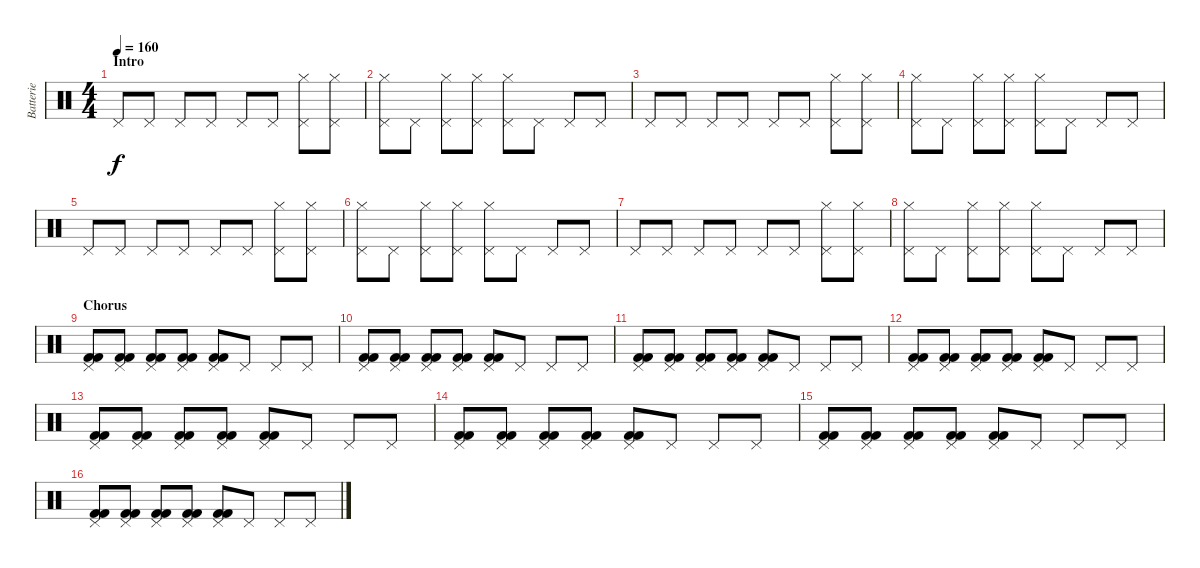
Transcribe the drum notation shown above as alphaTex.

\track ("Batterie" "Batterie") {instrument percussion}
\staff {score}
\articulation defaults
\ts (4 4)
\section ("" "Intro")
\tempo 160
\clef neutral
\ks c "Pedal Hi-Hat (hit)".8{dy f} "Pedal Hi-Hat (hit)".8 "Pedal Hi-Hat (hit)".8 "Pedal Hi-Hat (hit)".8 "Pedal Hi-Hat (hit)".8 "Pedal Hi-Hat (hit)".8
("Hi-Hat (closed)" "Pedal Hi-Hat (hit)").8 ("Hi-Hat (closed)" "Pedal Hi-Hat (hit)").8 |
("Hi-Hat (closed)" "Pedal Hi-Hat (hit)").8 "Pedal Hi-Hat (hit)".8 ("Hi-Hat (closed)" "Pedal Hi-Hat (hit)").8 ("Hi-Hat (closed)" "Pedal Hi-Hat (hit)").8 ("Hi-Hat (closed)" "Pedal Hi-Hat (hit)").8 "Pedal Hi-Hat (hit)".8 "Pedal Hi-Hat (hit)".8 "Pedal Hi-Hat (hit)".8 |
"Pedal Hi-Hat (hit)".8 "Pedal Hi-Hat (hit)".8 "Pedal Hi-Hat (hit)".8 "Pedal Hi-Hat (hit)".8 "Pedal Hi-Hat (hit)".8 "Pedal Hi-Hat (hit)".8 ("Hi-Hat (closed)" "Pedal Hi-Hat (hit)").8 ("Hi-Hat (closed)" "Pedal Hi-Hat (hit)").8 |
("Hi-Hat (closed)" "Pedal Hi-Hat (hit)").8 "Pedal Hi-Hat (hit)".8 ("Hi-Hat (closed)" "Pedal Hi-Hat (hit)").8 ("Hi-Hat (closed)" "Pedal Hi-Hat (hit)").8 ("Hi-Hat (closed)" "Pedal Hi-Hat (hit)").8 "Pedal Hi-Hat (hit)".8 "Pedal Hi-Hat (hit)".8 "Pedal Hi-Hat (hit)".8 |
"Pedal Hi-Hat (hit)".8 "Pedal Hi-Hat (hit)".8 "Pedal Hi-Hat (hit)".8 "Pedal Hi-Hat (hit)".8 "Pedal Hi-Hat (hit)".8 "Pedal Hi-Hat (hit)".8 ("Hi-Hat (closed)" "Pedal Hi-Hat (hit)").8 ("Hi-Hat (closed)" "Pedal Hi-Hat (hit)").8 |
("Hi-Hat (closed)" "Pedal Hi-Hat (hit)").8 "Pedal Hi-Hat (hit)".8 ("Hi-Hat (closed)" "Pedal Hi-Hat (hit)").8 ("Hi-Hat (closed)" "Pedal Hi-Hat (hit)").8 ("Hi-Hat (closed)" "Pedal Hi-Hat (hit)").8 "Pedal Hi-Hat (hit)".8 "Pedal Hi-Hat (hit)".8 "Pedal Hi-Hat (hit)".8 |
"Pedal Hi-Hat (hit)".8 "Pedal Hi-Hat (hit)".8 "Pedal Hi-Hat (hit)".8 "Pedal Hi-Hat (hit)".8 "Pedal Hi-Hat (hit)".8 "Pedal Hi-Hat (hit)".8 ("Hi-Hat (closed)" "Pedal Hi-Hat (hit)").8 ("Hi-Hat (closed)" "Pedal Hi-Hat (hit)").8 |
("Hi-Hat (closed)" "Pedal Hi-Hat (hit)").8 "Pedal Hi-Hat (hit)".8 ("Hi-Hat (closed)" "Pedal Hi-Hat (hit)").8 ("Hi-Hat (closed)" "Pedal Hi-Hat (hit)").8 ("Hi-Hat (closed)" "Pedal Hi-Hat (hit)").8 "Pedal Hi-Hat (hit)".8 "Pedal Hi-Hat (hit)".8 "Pedal Hi-Hat (hit)".8 |
\section ("" "Chorus")
("Pedal Hi-Hat (hit)" "Kick (hit) 2" "Kick (hit) 2").8 ("Pedal Hi-Hat (hit)" "Kick (hit) 2" "Kick (hit) 2").8 ("Pedal Hi-Hat (hit)" "Kick (hit) 2" "Kick (hit) 2").8 ("Pedal Hi-Hat (hit)" "Kick (hit) 2" "Kick (hit) 2").8 ("Pedal Hi-Hat (hit)" "Kick (hit) 2" "Kick (hit) 2").8 "Pedal Hi-Hat (hit)".8 "Pedal Hi-Hat (hit)".8 "Pedal Hi-Hat (hit)".8 |
("Pedal Hi-Hat (hit)" "Kick (hit) 2" "Kick (hit) 2").8 ("Pedal Hi-Hat (hit)" "Kick (hit) 2" "Kick (hit) 2").8 ("Pedal Hi-Hat (hit)" "Kick (hit) 2" "Kick (hit) 2").8 ("Pedal Hi-Hat (hit)" "Kick (hit) 2" "Kick (hit) 2").8 ("Pedal Hi-Hat (hit)" "Kick (hit) 2" "Kick (hit) 2").8 "Pedal Hi-Hat (hit)".8 "Pedal Hi-Hat (hit)".8 "Pedal Hi-Hat (hit)".8 |
("Pedal Hi-Hat (hit)" "Kick (hit) 2" "Kick (hit) 2").8 ("Pedal Hi-Hat (hit)" "Kick (hit) 2" "Kick (hit) 2").8 ("Pedal Hi-Hat (hit)" "Kick (hit) 2" "Kick (hit) 2").8 ("Pedal Hi-Hat (hit)" "Kick (hit) 2" "Kick (hit) 2").8 ("Pedal Hi-Hat (hit)" "Kick (hit) 2" "Kick (hit) 2").8 "Pedal Hi-Hat (hit)".8 "Pedal Hi-Hat (hit)".8 "Pedal Hi-Hat (hit)".8 |
("Pedal Hi-Hat (hit)" "Kick (hit) 2" "Kick (hit) 2").8 ("Pedal Hi-Hat (hit)" "Kick (hit) 2" "Kick (hit) 2").8 ("Pedal Hi-Hat (hit)" "Kick (hit) 2" "Kick (hit) 2").8 ("Pedal Hi-Hat (hit)" "Kick (hit) 2" "Kick (hit) 2").8 ("Pedal Hi-Hat (hit)" "Kick (hit) 2" "Kick (hit) 2").8 "Pedal Hi-Hat (hit)".8 "Pedal Hi-Hat (hit)".8 "Pedal Hi-Hat (hit)".8 |
("Pedal Hi-Hat (hit)" "Kick (hit) 2" "Kick (hit) 2").8 ("Pedal Hi-Hat (hit)" "Kick (hit) 2" "Kick (hit) 2").8 ("Pedal Hi-Hat (hit)" "Kick (hit) 2" "Kick (hit) 2").8 ("Pedal Hi-Hat (hit)" "Kick (hit) 2" "Kick (hit) 2").8 ("Pedal Hi-Hat (hit)" "Kick (hit) 2" "Kick (hit) 2").8 "Pedal Hi-Hat (hit)".8 "Pedal Hi-Hat (hit)".8 "Pedal Hi-Hat (hit)".8 |
("Pedal Hi-Hat (hit)" "Kick (hit) 2" "Kick (hit) 2").8 ("Pedal Hi-Hat (hit)" "Kick (hit) 2" "Kick (hit) 2").8 ("Pedal Hi-Hat (hit)" "Kick (hit) 2" "Kick (hit) 2").8 ("Pedal Hi-Hat (hit)" "Kick (hit) 2" "Kick (hit) 2").8 ("Pedal Hi-Hat (hit)" "Kick (hit) 2" "Kick (hit) 2").8 "Pedal Hi-Hat (hit)".8 "Pedal Hi-Hat (hit)".8 "Pedal Hi-Hat (hit)".8 |
("Pedal Hi-Hat (hit)" "Kick (hit) 2" "Kick (hit) 2").8 ("Pedal Hi-Hat (hit)" "Kick (hit) 2" "Kick (hit) 2").8 ("Pedal Hi-Hat (hit)" "Kick (hit) 2" "Kick (hit) 2").8 ("Pedal Hi-Hat (hit)" "Kick (hit) 2" "Kick (hit) 2").8 ("Pedal Hi-Hat (hit)" "Kick (hit) 2" "Kick (hit) 2").8 "Pedal Hi-Hat (hit)".8 "Pedal Hi-Hat (hit)".8 "Pedal Hi-Hat (hit)".8 |
("Pedal Hi-Hat (hit)" "Kick (hit) 2" "Kick (hit) 2").8 ("Pedal Hi-Hat (hit)" "Kick (hit) 2" "Kick (hit) 2").8 ("Pedal Hi-Hat (hit)" "Kick (hit) 2" "Kick (hit) 2").8 ("Pedal Hi-Hat (hit)" "Kick (hit) 2" "Kick (hit) 2").8 ("Pedal Hi-Hat (hit)" "Kick (hit) 2" "Kick (hit) 2").8 "Pedal Hi-Hat (hit)".8 "Pedal Hi-Hat (hit)".8 "Pedal Hi-Hat (hit)".8
